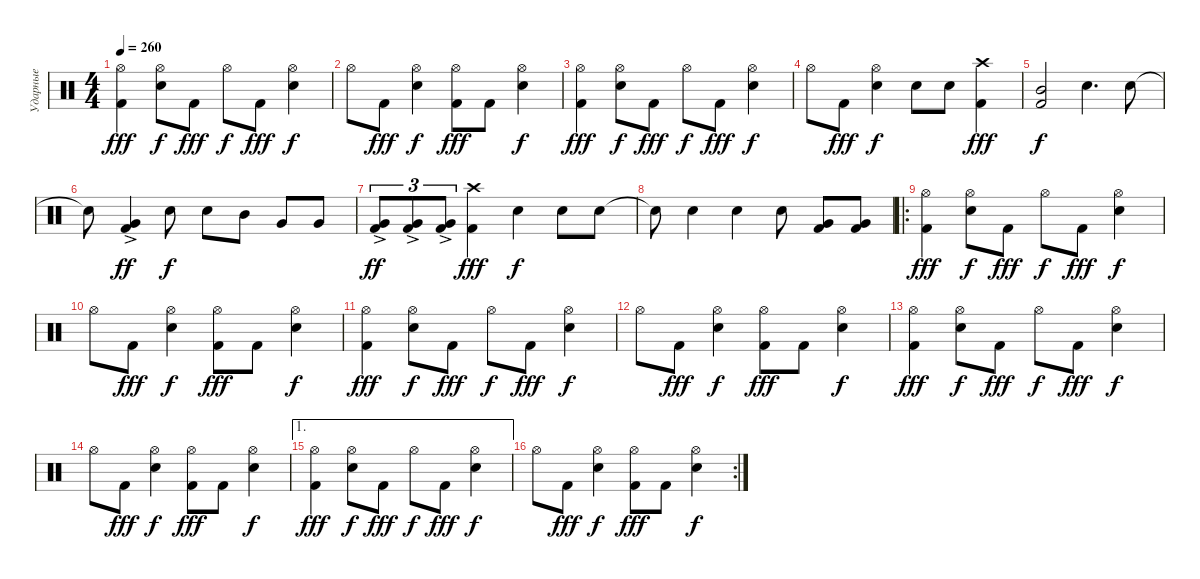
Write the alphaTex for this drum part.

\track ("Ударные" "Ударные") {instrument percussion}
\staff {score}
\articulation defaults
\ts (4 4)
\tempo 260
\clef neutral
\ks c
("Kick (hit) 2" "Hi-Hat (open)").4{dy fff} ("Snare (hit) 2" "Hi-Hat (open)").8{dy f} "Kick (hit) 2".8{dy fff} "Hi-Hat (open)".8{dy f} "Kick (hit) 2".8{dy fff} ("Snare (hit) 2" "Hi-Hat (open)").4{dy f} |
"Hi-Hat (open)".8 "Kick (hit) 2".8{dy fff} ("Snare (hit) 2" "Hi-Hat (open)").4{dy f} ("Kick (hit) 2" "Hi-Hat (open)").8{dy fff} "Kick (hit) 2".8 ("Snare (hit) 2" "Hi-Hat (open)").4{dy f} |
("Kick (hit) 2" "Hi-Hat (open)").4{dy fff} ("Snare (hit) 2" "Hi-Hat (open)").8{dy f} "Kick (hit) 2".8{dy fff} "Hi-Hat (open)".8{dy f} "Kick (hit) 2".8{dy fff} ("Snare (hit) 2" "Hi-Hat (open)").4{dy f} |
"Hi-Hat (open)".8 "Kick (hit) 2".8{dy fff} ("Snare (hit) 2" "Hi-Hat (open)").4{dy f} "Snare (hit) 2".8 "Snare (hit) 2".8 ("Kick (hit) 2" "Crash high (hit)").4{dy fff} |
("Kick (hit) 2" "Mid Tom (hit)").2{dy f} "Snare (hit) 2".4{d} "Snare (hit) 2".8 |
"Snare (hit)"{t}.8 ("Kick (hit) 2" "Very Low Tom (hit)"{ac}).4{dy ff} "Snare (hit) 2".8{dy f} "Snare (hit) 2".8 "Mid Tom (hit)".8 "Very Low Tom (hit)".8 "Very Low Tom (hit)".8 |
("Kick (hit) 2" "Very Low Tom (hit)"{ac}).8{tu (3 2) dy ff} ("Kick (hit) 2" "Very Low Tom (hit)"{ac}).8{tu (3 2)} ("Kick (hit) 2" "Very Low Tom (hit)"{ac}).8{tu (3 2)} ("Kick (hit) 2" "Crash high (hit)").4{dy fff} "Snare (hit) 2".4{dy f} "Snare (hit) 2".8 "Snare (hit) 2".8 |
"Snare (hit)"{t}.8 "Snare (hit) 2".4 "Snare (hit) 2".4 "Snare (hit) 2".8 ("Kick (hit) 2" "Very Low Tom (hit)").8 ("Kick (hit) 2" "Very Low Tom (hit)").8 |
\ro
("Kick (hit) 2" "Hi-Hat (open)").4{dy fff} ("Snare (hit) 2" "Hi-Hat (open)").8{dy f} "Kick (hit) 2".8{dy fff} "Hi-Hat (open)".8{dy f} "Kick (hit) 2".8{dy fff} ("Snare (hit) 2" "Hi-Hat (open)").4{dy f} |
"Hi-Hat (open)".8 "Kick (hit) 2".8{dy fff} ("Snare (hit) 2" "Hi-Hat (open)").4{dy f} ("Kick (hit) 2" "Hi-Hat (open)").8{dy fff} "Kick (hit) 2".8 ("Snare (hit) 2" "Hi-Hat (open)").4{dy f} |
("Kick (hit) 2" "Hi-Hat (open)").4{dy fff} ("Snare (hit) 2" "Hi-Hat (open)").8{dy f} "Kick (hit) 2".8{dy fff} "Hi-Hat (open)".8{dy f} "Kick (hit) 2".8{dy fff} ("Snare (hit) 2" "Hi-Hat (open)").4{dy f} |
"Hi-Hat (open)".8 "Kick (hit) 2".8{dy fff} ("Snare (hit) 2" "Hi-Hat (open)").4{dy f} ("Kick (hit) 2" "Hi-Hat (open)").8{dy fff} "Kick (hit) 2".8 ("Snare (hit) 2" "Hi-Hat (open)").4{dy f} |
("Kick (hit) 2" "Hi-Hat (open)").4{dy fff} ("Snare (hit) 2" "Hi-Hat (open)").8{dy f} "Kick (hit) 2".8{dy fff} "Hi-Hat (open)".8{dy f} "Kick (hit) 2".8{dy fff} ("Snare (hit) 2" "Hi-Hat (open)").4{dy f} |
"Hi-Hat (open)".8 "Kick (hit) 2".8{dy fff} ("Snare (hit) 2" "Hi-Hat (open)").4{dy f} ("Kick (hit) 2" "Hi-Hat (open)").8{dy fff} "Kick (hit) 2".8 ("Snare (hit) 2" "Hi-Hat (open)").4{dy f} |
\ae 1
("Kick (hit) 2" "Hi-Hat (open)").4{dy fff} ("Snare (hit) 2" "Hi-Hat (open)").8{dy f} "Kick (hit) 2".8{dy fff} "Hi-Hat (open)".8{dy f} "Kick (hit) 2".8{dy fff} ("Snare (hit) 2" "Hi-Hat (open)").4{dy f} |
\rc 2 "Hi-Hat (open)".8 "Kick (hit) 2".8{dy fff}
("Snare (hit) 2" "Hi-Hat (open)").4{dy f} ("Kick (hit) 2" "Hi-Hat (open)").8{dy fff} "Kick (hit) 2".8 ("Snare (hit) 2" "Hi-Hat (open)").4{dy f}
